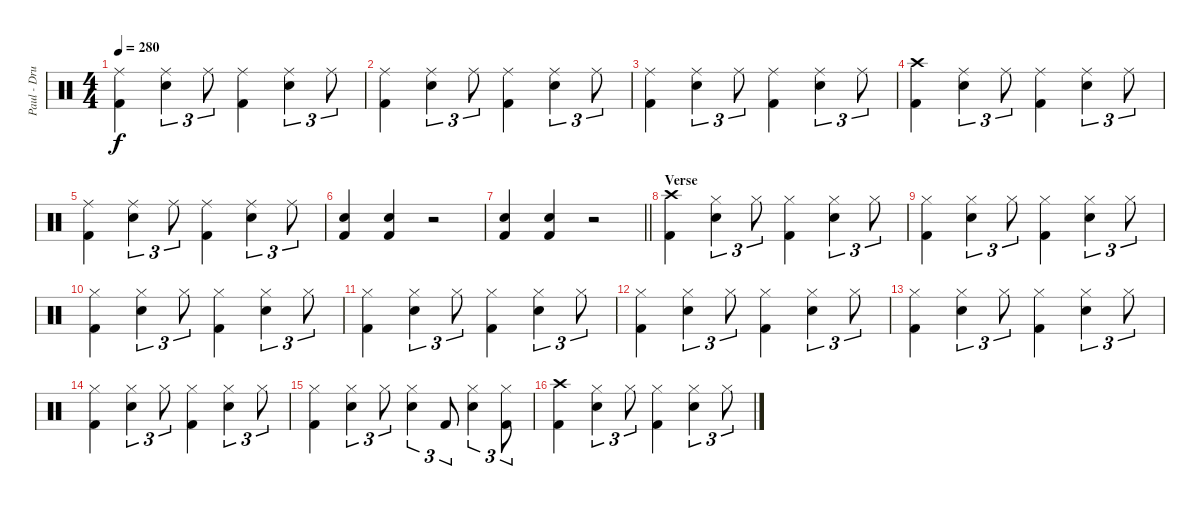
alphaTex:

\track ("Paul - Drums" "Paul - Dru") {instrument percussion}
\staff {score}
\articulation defaults
\ts (4 4)
\tempo 280
\clef neutral
\ks c
("Ride (middle)" "Kick (hit) 2").4{dy f} ("Ride (middle)" "Electric Snare (hit)").4{tu (3 2)} "Ride (middle)".8{tu (3 2)} ("Ride (middle)" "Kick (hit) 2").4 ("Ride (middle)" "Electric Snare (hit)").4{tu (3 2)} "Ride (middle)".8{tu (3 2)} |
("Ride (middle)" "Kick (hit) 2").4 ("Ride (middle)" "Electric Snare (hit)").4{tu (3 2)} "Ride (middle)".8{tu (3 2)} ("Ride (middle)" "Kick (hit) 2").4 ("Ride (middle)" "Electric Snare (hit)").4{tu (3 2)} "Ride (middle)".8{tu (3 2)} |
("Ride (middle)" "Kick (hit) 2").4 ("Ride (middle)" "Electric Snare (hit)").4{tu (3 2)} "Ride (middle)".8{tu (3 2)} ("Ride (middle)" "Kick (hit) 2").4 ("Ride (middle)" "Electric Snare (hit)").4{tu (3 2)} "Ride (middle)".8{tu (3 2)} |
("Crash high (hit)" "Kick (hit) 2").4 ("Ride (middle)" "Electric Snare (hit)").4{tu (3 2)} "Ride (middle)".8{tu (3 2)} ("Ride (middle)" "Kick (hit) 2").4 ("Ride (middle)" "Electric Snare (hit)").4{tu (3 2)} "Ride (middle)".8{tu (3 2)} |
("Ride (middle)" "Kick (hit) 2").4 ("Ride (middle)" "Electric Snare (hit)").4{tu (3 2)} "Ride (middle)".8{tu (3 2)} ("Ride (middle)" "Kick (hit) 2").4 ("Ride (middle)" "Electric Snare (hit)").4{tu (3 2)} "Ride (middle)".8{tu (3 2)} |
("Electric Snare (hit)" "Kick (hit) 2").4 ("Electric Snare (hit)" "Kick (hit) 2").4 r.2 |
\barLineRight lightlight
("Electric Snare (hit)" "Kick (hit) 2").4 ("Electric Snare (hit)" "Kick (hit) 2").4 r.2 |
\section ("" "Verse")
("Crash high (hit)" "Kick (hit) 2").4 ("Hi-Hat (closed)" "Electric Snare (hit)").4{tu (3 2)} "Hi-Hat (closed)".8{tu (3 2)} ("Hi-Hat (closed)" "Kick (hit) 2").4 ("Hi-Hat (closed)" "Electric Snare (hit)").4{tu (3 2)} "Hi-Hat (closed)".8{tu (3 2)} |
("Hi-Hat (closed)" "Kick (hit) 2").4 ("Hi-Hat (closed)" "Electric Snare (hit)").4{tu (3 2)} "Hi-Hat (closed)".8{tu (3 2)} ("Hi-Hat (closed)" "Kick (hit) 2").4 ("Hi-Hat (closed)" "Electric Snare (hit)").4{tu (3 2)} "Hi-Hat (closed)".8{tu (3 2)} |
("Hi-Hat (closed)" "Kick (hit) 2").4 ("Hi-Hat (closed)" "Electric Snare (hit)").4{tu (3 2)} "Hi-Hat (closed)".8{tu (3 2)} ("Hi-Hat (closed)" "Kick (hit) 2").4 ("Hi-Hat (closed)" "Electric Snare (hit)").4{tu (3 2)} "Hi-Hat (closed)".8{tu (3 2)} |
("Hi-Hat (closed)" "Kick (hit) 2").4 ("Hi-Hat (closed)" "Electric Snare (hit)").4{tu (3 2)} "Hi-Hat (closed)".8{tu (3 2)} ("Hi-Hat (closed)" "Kick (hit) 2").4 ("Hi-Hat (closed)" "Electric Snare (hit)").4{tu (3 2)} "Hi-Hat (closed)".8{tu (3 2)} |
("Hi-Hat (closed)" "Kick (hit) 2").4 ("Hi-Hat (closed)" "Electric Snare (hit)").4{tu (3 2)} "Hi-Hat (closed)".8{tu (3 2)} ("Hi-Hat (closed)" "Kick (hit) 2").4 ("Hi-Hat (closed)" "Electric Snare (hit)").4{tu (3 2)} "Hi-Hat (closed)".8{tu (3 2)} |
("Hi-Hat (closed)" "Kick (hit) 2").4 ("Hi-Hat (closed)" "Electric Snare (hit)").4{tu (3 2)} "Hi-Hat (closed)".8{tu (3 2)} ("Hi-Hat (closed)" "Kick (hit) 2").4 ("Hi-Hat (closed)" "Electric Snare (hit)").4{tu (3 2)} "Hi-Hat (closed)".8{tu (3 2)} |
("Hi-Hat (closed)" "Kick (hit) 2").4 ("Hi-Hat (closed)" "Electric Snare (hit)").4{tu (3 2)} "Hi-Hat (closed)".8{tu (3 2)} ("Hi-Hat (closed)" "Kick (hit) 2").4 ("Hi-Hat (closed)" "Electric Snare (hit)").4{tu (3 2)} "Hi-Hat (closed)".8{tu (3 2)} |
("Hi-Hat (closed)" "Kick (hit) 2").4 ("Hi-Hat (closed)" "Electric Snare (hit)").4{tu (3 2)} "Hi-Hat (closed)".8{tu (3 2)} ("Hi-Hat (closed)" "Electric Snare (hit)").4{tu (3 2)} "Kick (hit) 2".8{tu (3 2)} ("Hi-Hat (closed)" "Electric Snare (hit)").4{tu (3 2)} ("Hi-Hat (closed)" "Kick (hit) 2").8{tu (3 2)} |
("Crash high (hit)" "Kick (hit) 2").4 ("Hi-Hat (closed)" "Electric Snare (hit)").4{tu (3 2)} "Hi-Hat (closed)".8{tu (3 2)} ("Hi-Hat (closed)" "Kick (hit) 2").4 ("Hi-Hat (closed)" "Electric Snare (hit)").4{tu (3 2)} "Hi-Hat (closed)".8{tu (3 2)}
